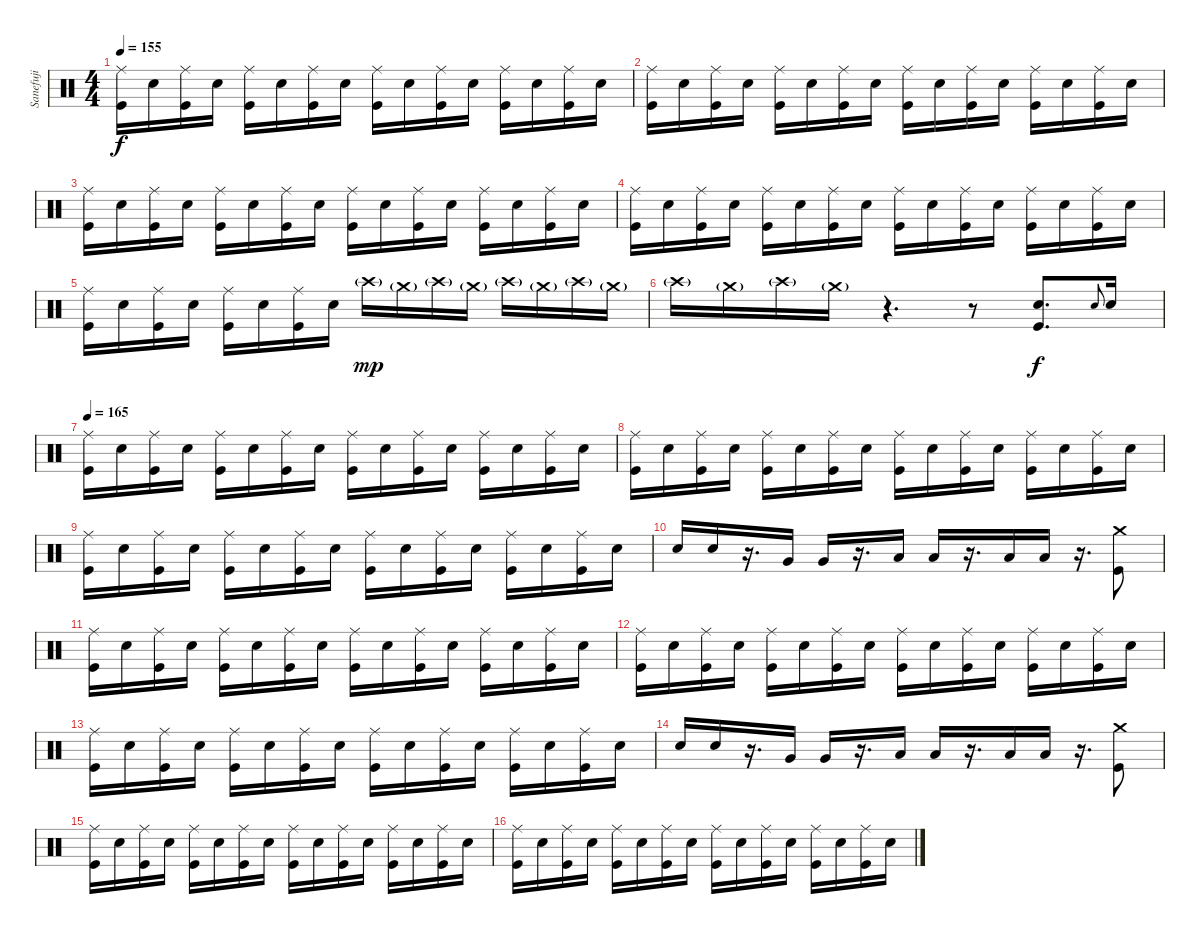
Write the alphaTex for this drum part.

\track ("Sanefuji" "Sanefuji") {instrument percussion}
\staff {score}
\articulation defaults
\ts (4 4)
\tempo 155
\clef neutral
\ks c
("Ride (middle)" "Kick (hit)").16{dy f} "Electric Snare (hit)".16 ("Ride (middle)" "Kick (hit)").16 "Electric Snare (hit)".16 ("Ride (middle)" "Kick (hit)").16 "Electric Snare (hit)".16 ("Ride (middle)" "Kick (hit)").16 "Electric Snare (hit)".16 ("Ride (middle)" "Kick (hit)").16 "Electric Snare (hit)".16 ("Ride (middle)" "Kick (hit)").16 "Electric Snare (hit)".16 ("Ride (middle)" "Kick (hit)").16 "Electric Snare (hit)".16 ("Ride (middle)" "Kick (hit)").16 "Electric Snare (hit)".16 |
("Ride (middle)" "Kick (hit)").16 "Electric Snare (hit)".16 ("Ride (middle)" "Kick (hit)").16 "Electric Snare (hit)".16 ("Ride (middle)" "Kick (hit)").16 "Electric Snare (hit)".16 ("Ride (middle)" "Kick (hit)").16 "Electric Snare (hit)".16 ("Ride (middle)" "Kick (hit)").16 "Electric Snare (hit)".16 ("Ride (middle)" "Kick (hit)").16 "Electric Snare (hit)".16 ("Ride (middle)" "Kick (hit)").16 "Electric Snare (hit)".16 ("Ride (middle)" "Kick (hit)").16 "Electric Snare (hit)".16 |
("Ride (middle)" "Kick (hit)").16 "Electric Snare (hit)".16 ("Ride (middle)" "Kick (hit)").16 "Electric Snare (hit)".16 ("Ride (middle)" "Kick (hit)").16 "Electric Snare (hit)".16 ("Ride (middle)" "Kick (hit)").16 "Electric Snare (hit)".16 ("Ride (middle)" "Kick (hit)").16 "Electric Snare (hit)".16 ("Ride (middle)" "Kick (hit)").16 "Electric Snare (hit)".16 ("Ride (middle)" "Kick (hit)").16 "Electric Snare (hit)".16 ("Ride (middle)" "Kick (hit)").16 "Electric Snare (hit)".16 |
("Ride (middle)" "Kick (hit)").16 "Electric Snare (hit)".16 ("Ride (middle)" "Kick (hit)").16 "Electric Snare (hit)".16 ("Ride (middle)" "Kick (hit)").16 "Electric Snare (hit)".16 ("Ride (middle)" "Kick (hit)").16 "Electric Snare (hit)".16 ("Ride (middle)" "Kick (hit)").16 "Electric Snare (hit)".16 ("Ride (middle)" "Kick (hit)").16 "Electric Snare (hit)".16 ("Ride (middle)" "Kick (hit)").16 "Electric Snare (hit)".16 ("Ride (middle)" "Kick (hit)").16 "Electric Snare (hit)".16 |
("Ride (middle)" "Kick (hit)").16 "Electric Snare (hit)".16 ("Ride (middle)" "Kick (hit)").16 "Electric Snare (hit)".16 ("Ride (middle)" "Kick (hit)").16 "Electric Snare (hit)".16 ("Ride (middle)" "Kick (hit)").16 "Electric Snare (hit)".16 "Crash high (hit)"{g}.16{dy mp} "Crash medium (hit)"{g}.16 "Crash high (hit)"{g}.16 "Crash medium (hit)"{g}.16 "Crash high (hit)"{g}.16 "Crash medium (hit)"{g}.16 "Crash high (hit)"{g}.16 "Crash medium (hit)"{g}.16 |
"Crash high (hit)"{g}.16 "Crash medium (hit)"{g}.16 "Crash high (hit)"{g}.16 "Crash medium (hit)"{g}.16 r.4{d} r.8 ("Electric Snare (hit)" "Kick (hit)").8{d dy f} "Electric Snare (hit)".8{gr onbeat} "Electric Snare (hit)".16 |
\tempo 165
("Ride (middle)" "Kick (hit)").16 "Electric Snare (hit)".16 ("Ride (middle)" "Kick (hit)").16 "Electric Snare (hit)".16 ("Ride (middle)" "Kick (hit)").16 "Electric Snare (hit)".16 ("Ride (middle)" "Kick (hit)").16 "Electric Snare (hit)".16 ("Ride (middle)" "Kick (hit)").16 "Electric Snare (hit)".16 ("Ride (middle)" "Kick (hit)").16 "Electric Snare (hit)".16 ("Ride (middle)" "Kick (hit)").16 "Electric Snare (hit)".16 ("Ride (middle)" "Kick (hit)").16 "Electric Snare (hit)".16 |
("Ride (middle)" "Kick (hit)").16 "Electric Snare (hit)".16 ("Ride (middle)" "Kick (hit)").16 "Electric Snare (hit)".16 ("Ride (middle)" "Kick (hit)").16 "Electric Snare (hit)".16 ("Ride (middle)" "Kick (hit)").16 "Electric Snare (hit)".16 ("Ride (middle)" "Kick (hit)").16 "Electric Snare (hit)".16 ("Ride (middle)" "Kick (hit)").16 "Electric Snare (hit)".16 ("Ride (middle)" "Kick (hit)").16 "Electric Snare (hit)".16 ("Ride (middle)" "Kick (hit)").16 "Electric Snare (hit)".16 |
("Ride (middle)" "Kick (hit)").16 "Electric Snare (hit)".16 ("Ride (middle)" "Kick (hit)").16 "Electric Snare (hit)".16 ("Ride (middle)" "Kick (hit)").16 "Electric Snare (hit)".16 ("Ride (middle)" "Kick (hit)").16 "Electric Snare (hit)".16 ("Ride (middle)" "Kick (hit)").16 "Electric Snare (hit)".16 ("Ride (middle)" "Kick (hit)").16 "Electric Snare (hit)".16 ("Ride (middle)" "Kick (hit)").16 "Electric Snare (hit)".16 ("Ride (middle)" "Kick (hit)").16 "Electric Snare (hit)".16 |
"Electric Snare (hit)".16 "Electric Snare (hit)".16 r.16{d} "Very Low Tom (hit)".16 "Very Low Tom (hit)".16 r.16{d} "Low Tom (hit)".16 "Low Tom (hit)".16 r.16{d} "Low Tom (hit)".16 "Low Tom (hit)".16 r.16{d} ("Crash medium (hit)" "Kick (hit)").8 |
("Ride (middle)" "Kick (hit)").16 "Electric Snare (hit)".16 ("Ride (middle)" "Kick (hit)").16 "Electric Snare (hit)".16 ("Ride (middle)" "Kick (hit)").16 "Electric Snare (hit)".16 ("Ride (middle)" "Kick (hit)").16 "Electric Snare (hit)".16 ("Ride (middle)" "Kick (hit)").16 "Electric Snare (hit)".16 ("Ride (middle)" "Kick (hit)").16 "Electric Snare (hit)".16 ("Ride (middle)" "Kick (hit)").16 "Electric Snare (hit)".16 ("Ride (middle)" "Kick (hit)").16 "Electric Snare (hit)".16 |
("Ride (middle)" "Kick (hit)").16 "Electric Snare (hit)".16 ("Ride (middle)" "Kick (hit)").16 "Electric Snare (hit)".16 ("Ride (middle)" "Kick (hit)").16 "Electric Snare (hit)".16 ("Ride (middle)" "Kick (hit)").16 "Electric Snare (hit)".16 ("Ride (middle)" "Kick (hit)").16 "Electric Snare (hit)".16 ("Ride (middle)" "Kick (hit)").16 "Electric Snare (hit)".16 ("Ride (middle)" "Kick (hit)").16 "Electric Snare (hit)".16 ("Ride (middle)" "Kick (hit)").16 "Electric Snare (hit)".16 |
("Ride (middle)" "Kick (hit)").16 "Electric Snare (hit)".16 ("Ride (middle)" "Kick (hit)").16 "Electric Snare (hit)".16 ("Ride (middle)" "Kick (hit)").16 "Electric Snare (hit)".16 ("Ride (middle)" "Kick (hit)").16 "Electric Snare (hit)".16 ("Ride (middle)" "Kick (hit)").16 "Electric Snare (hit)".16 ("Ride (middle)" "Kick (hit)").16 "Electric Snare (hit)".16 ("Ride (middle)" "Kick (hit)").16 "Electric Snare (hit)".16 ("Ride (middle)" "Kick (hit)").16 "Electric Snare (hit)".16 |
"Electric Snare (hit)".16 "Electric Snare (hit)".16 r.16{d} "Very Low Tom (hit)".16 "Very Low Tom (hit)".16 r.16{d} "Low Tom (hit)".16 "Low Tom (hit)".16 r.16{d} "Low Tom (hit)".16 "Low Tom (hit)".16 r.16{d} ("Crash medium (hit)" "Kick (hit)").8 |
("Ride (middle)" "Kick (hit)").16 "Electric Snare (hit)".16 ("Ride (middle)" "Kick (hit)").16 "Electric Snare (hit)".16 ("Ride (middle)" "Kick (hit)").16 "Electric Snare (hit)".16 ("Ride (middle)" "Kick (hit)").16 "Electric Snare (hit)".16 ("Ride (middle)" "Kick (hit)").16 "Electric Snare (hit)".16 ("Ride (middle)" "Kick (hit)").16 "Electric Snare (hit)".16 ("Ride (middle)" "Kick (hit)").16 "Electric Snare (hit)".16 ("Ride (middle)" "Kick (hit)").16 "Electric Snare (hit)".16 |
("Ride (middle)" "Kick (hit)").16 "Electric Snare (hit)".16 ("Ride (middle)" "Kick (hit)").16 "Electric Snare (hit)".16 ("Ride (middle)" "Kick (hit)").16 "Electric Snare (hit)".16 ("Ride (middle)" "Kick (hit)").16 "Electric Snare (hit)".16 ("Ride (middle)" "Kick (hit)").16 "Electric Snare (hit)".16 ("Ride (middle)" "Kick (hit)").16 "Electric Snare (hit)".16 ("Ride (middle)" "Kick (hit)").16 "Electric Snare (hit)".16 ("Ride (middle)" "Kick (hit)").16 "Electric Snare (hit)".16
